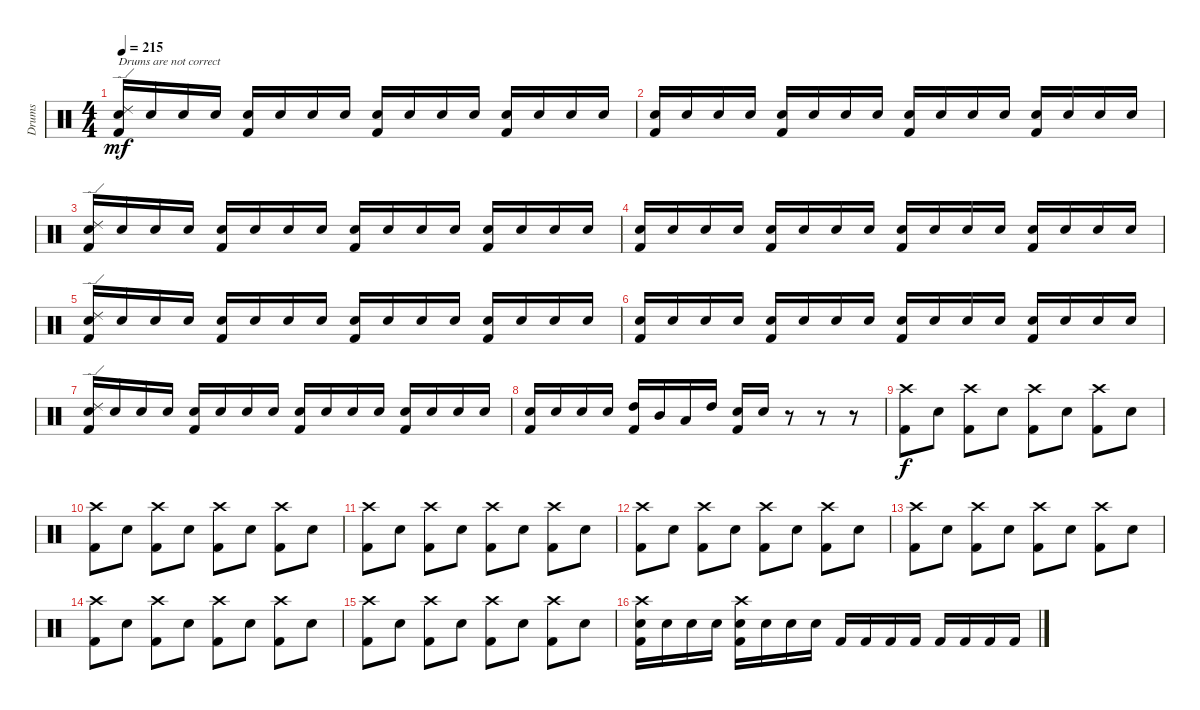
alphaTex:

\track ("Drums" "Drums") {instrument percussion}
\staff {score}
\articulation defaults
\ts (4 4)
\tempo 215
\clef neutral
\ks c
("Ride (edge) 2" "Electric Snare (hit)" "Kick (hit) 2").16{txt "Drums are not correct" dy mf} "Electric Snare (hit)".16 "Electric Snare (hit)".16 "Electric Snare (hit)".16 ("Electric Snare (hit)" "Kick (hit) 2").16 "Electric Snare (hit)".16 "Electric Snare (hit)".16 "Electric Snare (hit)".16 ("Electric Snare (hit)" "Kick (hit) 2").16 "Electric Snare (hit)".16 "Electric Snare (hit)".16 "Electric Snare (hit)".16 ("Electric Snare (hit)" "Kick (hit) 2").16 "Electric Snare (hit)".16 "Electric Snare (hit)".16 "Electric Snare (hit)".16 |
("Electric Snare (hit)" "Kick (hit) 2").16 "Electric Snare (hit)".16 "Electric Snare (hit)".16 "Electric Snare (hit)".16 ("Electric Snare (hit)" "Kick (hit) 2").16 "Electric Snare (hit)".16 "Electric Snare (hit)".16 "Electric Snare (hit)".16 ("Electric Snare (hit)" "Kick (hit) 2").16 "Electric Snare (hit)".16 "Electric Snare (hit)".16 "Electric Snare (hit)".16 ("Electric Snare (hit)" "Kick (hit) 2").16 "Electric Snare (hit)".16 "Electric Snare (hit)".16 "Electric Snare (hit)".16 |
("Ride (edge) 2" "Electric Snare (hit)" "Kick (hit) 2").16 "Electric Snare (hit)".16 "Electric Snare (hit)".16 "Electric Snare (hit)".16 ("Electric Snare (hit)" "Kick (hit) 2").16 "Electric Snare (hit)".16 "Electric Snare (hit)".16 "Electric Snare (hit)".16 ("Electric Snare (hit)" "Kick (hit) 2").16 "Electric Snare (hit)".16 "Electric Snare (hit)".16 "Electric Snare (hit)".16 ("Electric Snare (hit)" "Kick (hit) 2").16 "Electric Snare (hit)".16 "Electric Snare (hit)".16 "Electric Snare (hit)".16 |
("Electric Snare (hit)" "Kick (hit) 2").16 "Electric Snare (hit)".16 "Electric Snare (hit)".16 "Electric Snare (hit)".16 ("Electric Snare (hit)" "Kick (hit) 2").16 "Electric Snare (hit)".16 "Electric Snare (hit)".16 "Electric Snare (hit)".16 ("Electric Snare (hit)" "Kick (hit) 2").16 "Electric Snare (hit)".16 "Electric Snare (hit)".16 "Electric Snare (hit)".16 ("Electric Snare (hit)" "Kick (hit) 2").16 "Electric Snare (hit)".16 "Electric Snare (hit)".16 "Electric Snare (hit)".16 |
("Ride (edge) 2" "Electric Snare (hit)" "Kick (hit) 2").16 "Electric Snare (hit)".16 "Electric Snare (hit)".16 "Electric Snare (hit)".16 ("Electric Snare (hit)" "Kick (hit) 2").16 "Electric Snare (hit)".16 "Electric Snare (hit)".16 "Electric Snare (hit)".16 ("Electric Snare (hit)" "Kick (hit) 2").16 "Electric Snare (hit)".16 "Electric Snare (hit)".16 "Electric Snare (hit)".16 ("Electric Snare (hit)" "Kick (hit) 2").16 "Electric Snare (hit)".16 "Electric Snare (hit)".16 "Electric Snare (hit)".16 |
("Electric Snare (hit)" "Kick (hit) 2").16 "Electric Snare (hit)".16 "Electric Snare (hit)".16 "Electric Snare (hit)".16 ("Electric Snare (hit)" "Kick (hit) 2").16 "Electric Snare (hit)".16 "Electric Snare (hit)".16 "Electric Snare (hit)".16 ("Electric Snare (hit)" "Kick (hit) 2").16 "Electric Snare (hit)".16 "Electric Snare (hit)".16 "Electric Snare (hit)".16 ("Electric Snare (hit)" "Kick (hit) 2").16 "Electric Snare (hit)".16 "Electric Snare (hit)".16 "Electric Snare (hit)".16 |
("Ride (edge) 2" "Electric Snare (hit)" "Kick (hit) 2").16 "Electric Snare (hit)".16 "Electric Snare (hit)".16 "Electric Snare (hit)".16 ("Electric Snare (hit)" "Kick (hit) 2").16 "Electric Snare (hit)".16 "Electric Snare (hit)".16 "Electric Snare (hit)".16 ("Electric Snare (hit)" "Kick (hit) 2").16 "Electric Snare (hit)".16 "Electric Snare (hit)".16 "Electric Snare (hit)".16 ("Electric Snare (hit)" "Kick (hit) 2").16 "Electric Snare (hit)".16 "Electric Snare (hit)".16 "Electric Snare (hit)".16 |
("Electric Snare (hit)" "Kick (hit) 2").16 "Electric Snare (hit)".16 "Electric Snare (hit)".16 "Electric Snare (hit)".16 ("High Tom (hit)" "Kick (hit) 2").16 "Mid Tom (hit)".16 "Low Tom (hit)".16 "High Tom (hit)".16 ("Electric Snare (hit)" "Kick (hit) 2").16 "Electric Snare (hit)".16 r.8 r.8 r.8 |
("Crash high (hit)" "Kick (hit) 2").8{dy f} "Electric Snare (hit)".8 ("Crash high (hit)" "Kick (hit) 2").8 "Electric Snare (hit)".8 ("Crash high (hit)" "Kick (hit) 2").8 "Electric Snare (hit)".8 ("Crash high (hit)" "Kick (hit) 2").8 "Electric Snare (hit)".8 |
("Crash high (hit)" "Kick (hit) 2").8 "Electric Snare (hit)".8 ("Crash high (hit)" "Kick (hit) 2").8 "Electric Snare (hit)".8 ("Crash high (hit)" "Kick (hit) 2").8 "Electric Snare (hit)".8 ("Crash high (hit)" "Kick (hit) 2").8 "Electric Snare (hit)".8 |
("Crash high (hit)" "Kick (hit) 2").8 "Electric Snare (hit)".8 ("Crash high (hit)" "Kick (hit) 2").8 "Electric Snare (hit)".8 ("Crash high (hit)" "Kick (hit) 2").8 "Electric Snare (hit)".8 ("Crash high (hit)" "Kick (hit) 2").8 "Electric Snare (hit)".8 |
("Crash high (hit)" "Kick (hit) 2").8 "Electric Snare (hit)".8 ("Crash high (hit)" "Kick (hit) 2").8 "Electric Snare (hit)".8 ("Crash high (hit)" "Kick (hit) 2").8 "Electric Snare (hit)".8 ("Crash high (hit)" "Kick (hit) 2").8 "Electric Snare (hit)".8 |
("Crash high (hit)" "Kick (hit) 2").8 "Electric Snare (hit)".8 ("Crash high (hit)" "Kick (hit) 2").8 "Electric Snare (hit)".8 ("Crash high (hit)" "Kick (hit) 2").8 "Electric Snare (hit)".8 ("Crash high (hit)" "Kick (hit) 2").8 "Electric Snare (hit)".8 |
("Crash high (hit)" "Kick (hit) 2").8 "Electric Snare (hit)".8 ("Crash high (hit)" "Kick (hit) 2").8 "Electric Snare (hit)".8 ("Crash high (hit)" "Kick (hit) 2").8 "Electric Snare (hit)".8 ("Crash high (hit)" "Kick (hit) 2").8 "Electric Snare (hit)".8 |
("Crash high (hit)" "Kick (hit) 2").8 "Electric Snare (hit)".8 ("Crash high (hit)" "Kick (hit) 2").8 "Electric Snare (hit)".8 ("Crash high (hit)" "Kick (hit) 2").8 "Electric Snare (hit)".8 ("Crash high (hit)" "Kick (hit) 2").8 "Electric Snare (hit)".8 |
("Crash high (hit)" "Electric Snare (hit)" "Kick (hit) 2").16 "Electric Snare (hit)".16 "Electric Snare (hit)".16 "Electric Snare (hit)".16 ("Crash high (hit)" "Electric Snare (hit)" "Kick (hit) 2").16 "Electric Snare (hit)".16 "Electric Snare (hit)".16 "Electric Snare (hit)".16 "Kick (hit) 2".16 "Kick (hit) 2".16 "Kick (hit) 2".16 "Kick (hit) 2".16 "Kick (hit) 2".16 "Kick (hit) 2".16 "Kick (hit) 2".16 "Kick (hit) 2".16
